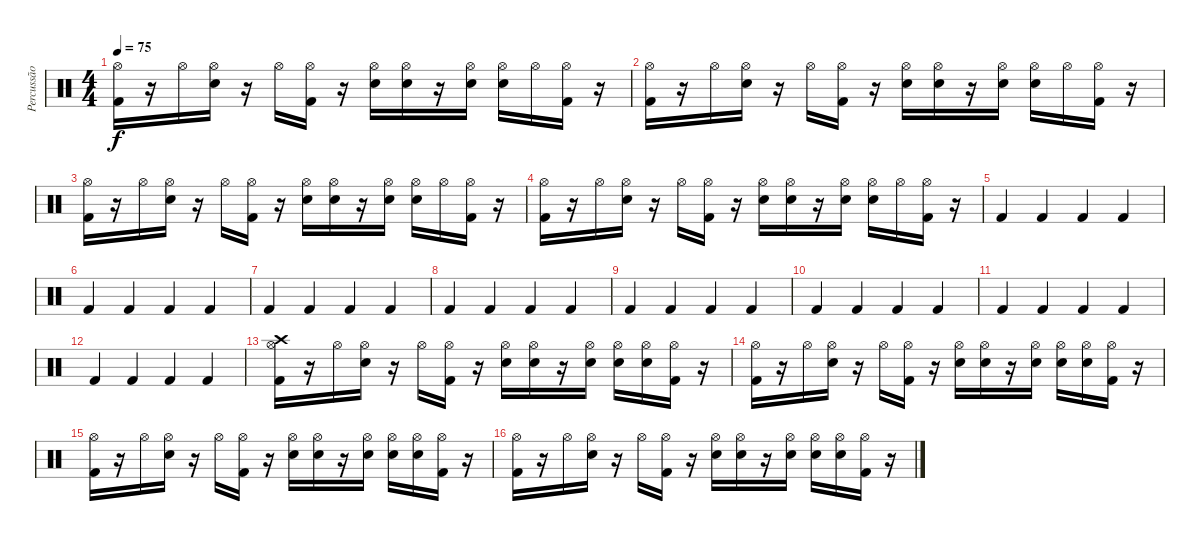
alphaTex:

\track ("Percussão" "Percussão") {instrument percussion}
\staff {score}
\articulation defaults
\ts (4 4)
\tempo 75
\clef neutral
\ks c
("Kick (hit) 2" "Hi-Hat (open)").16{dy f} r.16 "Hi-Hat (open)".16 ("Snare (hit) 2" "Hi-Hat (open)").16 r.16 "Hi-Hat (open)".16 ("Kick (hit) 2" "Hi-Hat (open)").16 r.16 ("Electric Snare (hit)" "Hi-Hat (open)").16 ("Snare (hit) 2" "Hi-Hat (open)").16 r.16 ("Electric Snare (hit)" "Hi-Hat (open)").16 ("Electric Snare (hit)" "Hi-Hat (open)").16 "Hi-Hat (open)".16 ("Kick (hit) 2" "Hi-Hat (open)").16 r.16 |
("Kick (hit) 2" "Hi-Hat (open)").16 r.16 "Hi-Hat (open)".16 ("Snare (hit) 2" "Hi-Hat (open)").16 r.16 "Hi-Hat (open)".16 ("Kick (hit) 2" "Hi-Hat (open)").16 r.16 ("Electric Snare (hit)" "Hi-Hat (open)").16 ("Snare (hit) 2" "Hi-Hat (open)").16 r.16 ("Electric Snare (hit)" "Hi-Hat (open)").16 ("Electric Snare (hit)" "Hi-Hat (open)").16 "Hi-Hat (open)".16 ("Kick (hit) 2" "Hi-Hat (open)").16 r.16 |
("Kick (hit) 2" "Hi-Hat (open)").16 r.16 "Hi-Hat (open)".16 ("Snare (hit) 2" "Hi-Hat (open)").16 r.16 "Hi-Hat (open)".16 ("Kick (hit) 2" "Hi-Hat (open)").16 r.16 ("Electric Snare (hit)" "Hi-Hat (open)").16 ("Snare (hit) 2" "Hi-Hat (open)").16 r.16 ("Electric Snare (hit)" "Hi-Hat (open)").16 ("Electric Snare (hit)" "Hi-Hat (open)").16 "Hi-Hat (open)".16 ("Kick (hit) 2" "Hi-Hat (open)").16 r.16 |
("Kick (hit) 2" "Hi-Hat (open)").16 r.16 "Hi-Hat (open)".16 ("Snare (hit) 2" "Hi-Hat (open)").16 r.16 "Hi-Hat (open)".16 ("Kick (hit) 2" "Hi-Hat (open)").16 r.16 ("Electric Snare (hit)" "Hi-Hat (open)").16 ("Snare (hit) 2" "Hi-Hat (open)").16 r.16 ("Electric Snare (hit)" "Hi-Hat (open)").16 ("Electric Snare (hit)" "Hi-Hat (open)").16 "Hi-Hat (open)".16 ("Kick (hit) 2" "Hi-Hat (open)").16 r.16 |
"Kick (hit) 2".4 "Kick (hit) 2".4 "Kick (hit) 2".4 "Kick (hit) 2".4 |
"Kick (hit) 2".4 "Kick (hit) 2".4 "Kick (hit) 2".4 "Kick (hit) 2".4 |
"Kick (hit) 2".4 "Kick (hit) 2".4 "Kick (hit) 2".4 "Kick (hit) 2".4 |
"Kick (hit) 2".4 "Kick (hit) 2".4 "Kick (hit) 2".4 "Kick (hit) 2".4 |
"Kick (hit) 2".4 "Kick (hit) 2".4 "Kick (hit) 2".4 "Kick (hit) 2".4 |
"Kick (hit) 2".4 "Kick (hit) 2".4 "Kick (hit) 2".4 "Kick (hit) 2".4 |
"Kick (hit) 2".4 "Kick (hit) 2".4 "Kick (hit) 2".4 "Kick (hit) 2".4 |
"Kick (hit) 2".4 "Kick (hit) 2".4 "Kick (hit) 2".4 "Kick (hit) 2".4 |
("Crash high (hit)" "Kick (hit) 2" "Hi-Hat (open)").16 r.16 "Hi-Hat (open)".16 ("Snare (hit) 2" "Hi-Hat (open)").16 r.16 "Hi-Hat (open)".16 ("Kick (hit) 2" "Hi-Hat (open)").16 r.16 ("Electric Snare (hit)" "Hi-Hat (open)").16 ("Snare (hit) 2" "Hi-Hat (open)").16 r.16 ("Electric Snare (hit)" "Hi-Hat (open)").16 ("Electric Snare (hit)" "Hi-Hat (open)").16 ("Snare (hit) 2" "Hi-Hat (open)").16 ("Kick (hit) 2" "Hi-Hat (open)").16 r.16 |
("Kick (hit) 2" "Hi-Hat (open)").16 r.16 "Hi-Hat (open)".16 ("Snare (hit) 2" "Hi-Hat (open)").16 r.16 "Hi-Hat (open)".16 ("Kick (hit) 2" "Hi-Hat (open)").16 r.16 ("Electric Snare (hit)" "Hi-Hat (open)").16 ("Snare (hit) 2" "Hi-Hat (open)").16 r.16 ("Electric Snare (hit)" "Hi-Hat (open)").16 ("Electric Snare (hit)" "Hi-Hat (open)").16 ("Snare (hit) 2" "Hi-Hat (open)").16 ("Kick (hit) 2" "Hi-Hat (open)").16 r.16 |
("Kick (hit) 2" "Hi-Hat (open)").16 r.16 "Hi-Hat (open)".16 ("Snare (hit) 2" "Hi-Hat (open)").16 r.16 "Hi-Hat (open)".16 ("Kick (hit) 2" "Hi-Hat (open)").16 r.16 ("Electric Snare (hit)" "Hi-Hat (open)").16 ("Snare (hit) 2" "Hi-Hat (open)").16 r.16 ("Electric Snare (hit)" "Hi-Hat (open)").16 ("Electric Snare (hit)" "Hi-Hat (open)").16 ("Snare (hit) 2" "Hi-Hat (open)").16 ("Kick (hit) 2" "Hi-Hat (open)").16 r.16 |
("Kick (hit) 2" "Hi-Hat (open)").16 r.16 "Hi-Hat (open)".16 ("Snare (hit) 2" "Hi-Hat (open)").16 r.16 "Hi-Hat (open)".16 ("Kick (hit) 2" "Hi-Hat (open)").16 r.16 ("Electric Snare (hit)" "Hi-Hat (open)").16 ("Snare (hit) 2" "Hi-Hat (open)").16 r.16 ("Electric Snare (hit)" "Hi-Hat (open)").16 ("Electric Snare (hit)" "Hi-Hat (open)").16 ("Snare (hit) 2" "Hi-Hat (open)").16 ("Kick (hit) 2" "Hi-Hat (open)").16 r.16
